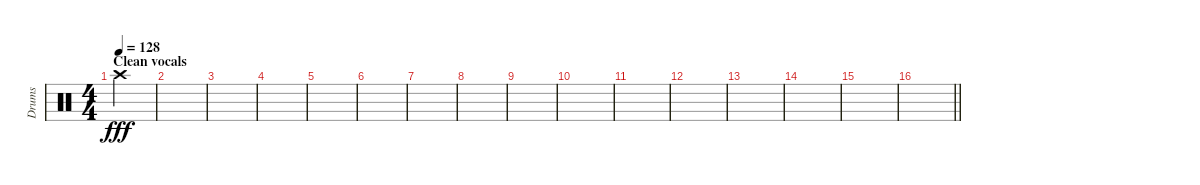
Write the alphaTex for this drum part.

\track ("Drums" "Drums") {instrument percussion}
\staff {score}
\articulation defaults
\ts (4 4)
\section ("" "Clean vocals")
\tempo 128
\clef neutral
\ks c "Crash high (hit)".4{dy fff}
|
|
|
|
|
|
|
|
|
|
|
|
|
|
|
\barLineRight lightlight
